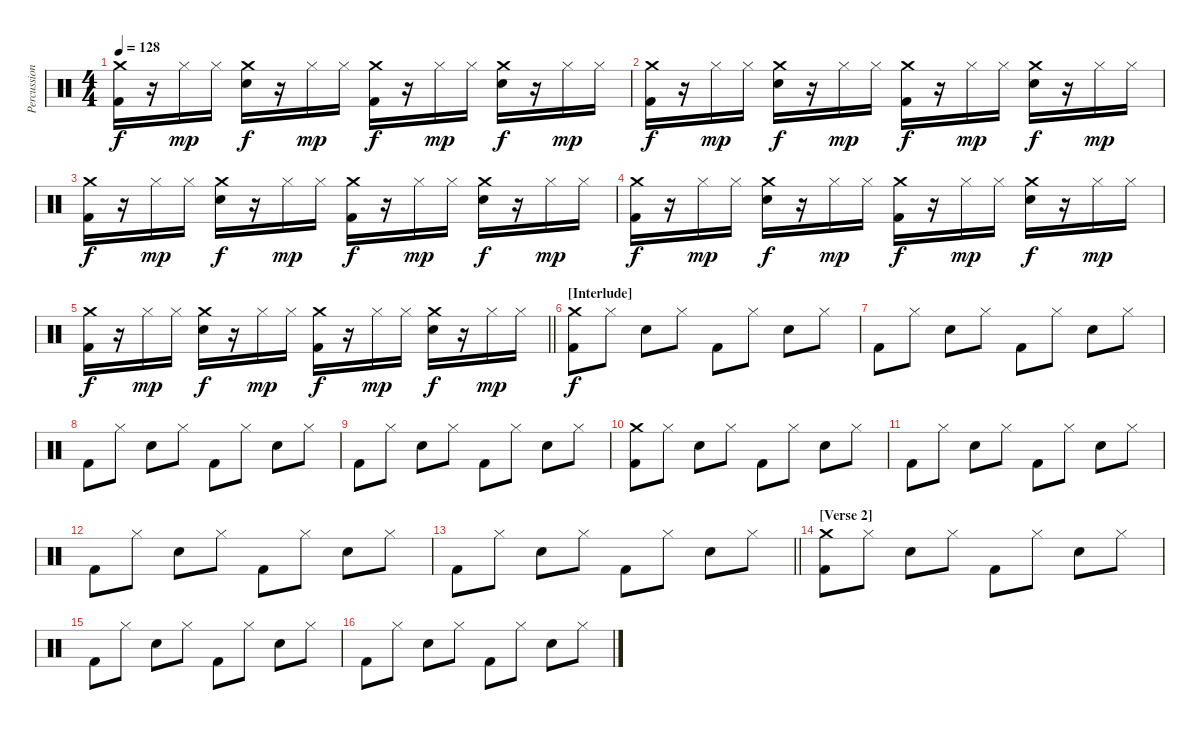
\track ("Percussion" "Percussion") {instrument percussion}
\staff {score}
\articulation defaults
\ts (4 4)
\tempo 128
\clef neutral
\ks c
("Crash medium (hit)" "Kick (hit) 2").16{dy f} r.16 "Hi-Hat (closed)".16{dy mp} "Hi-Hat (closed)".16 ("Crash medium (hit)" "Snare (hit) 2").16{dy f} r.16 "Hi-Hat (closed)".16{dy mp} "Hi-Hat (closed)".16 ("Crash medium (hit)" "Kick (hit) 2").16{dy f} r.16 "Hi-Hat (closed)".16{dy mp} "Hi-Hat (closed)".16 ("Crash medium (hit)" "Snare (hit) 2").16{dy f} r.16 "Hi-Hat (closed)".16{dy mp} "Hi-Hat (closed)".16 |
("Crash medium (hit)" "Kick (hit) 2").16{dy f} r.16 "Hi-Hat (closed)".16{dy mp} "Hi-Hat (closed)".16 ("Crash medium (hit)" "Snare (hit) 2").16{dy f} r.16 "Hi-Hat (closed)".16{dy mp} "Hi-Hat (closed)".16 ("Crash medium (hit)" "Kick (hit) 2").16{dy f} r.16 "Hi-Hat (closed)".16{dy mp} "Hi-Hat (closed)".16 ("Crash medium (hit)" "Snare (hit) 2").16{dy f} r.16 "Hi-Hat (closed)".16{dy mp} "Hi-Hat (closed)".16 |
("Crash medium (hit)" "Kick (hit) 2").16{dy f} r.16 "Hi-Hat (closed)".16{dy mp} "Hi-Hat (closed)".16 ("Crash medium (hit)" "Snare (hit) 2").16{dy f} r.16 "Hi-Hat (closed)".16{dy mp} "Hi-Hat (closed)".16 ("Crash medium (hit)" "Kick (hit) 2").16{dy f} r.16 "Hi-Hat (closed)".16{dy mp} "Hi-Hat (closed)".16 ("Crash medium (hit)" "Snare (hit) 2").16{dy f} r.16 "Hi-Hat (closed)".16{dy mp} "Hi-Hat (closed)".16 |
("Crash medium (hit)" "Kick (hit) 2").16{dy f} r.16 "Hi-Hat (closed)".16{dy mp} "Hi-Hat (closed)".16 ("Crash medium (hit)" "Snare (hit) 2").16{dy f} r.16 "Hi-Hat (closed)".16{dy mp} "Hi-Hat (closed)".16 ("Crash medium (hit)" "Kick (hit) 2").16{dy f} r.16 "Hi-Hat (closed)".16{dy mp} "Hi-Hat (closed)".16 ("Crash medium (hit)" "Snare (hit) 2").16{dy f} r.16 "Hi-Hat (closed)".16{dy mp} "Hi-Hat (closed)".16 |
\barLineRight lightlight
("Crash medium (hit)" "Kick (hit) 2").16{dy f} r.16 "Hi-Hat (closed)".16{dy mp} "Hi-Hat (closed)".16 ("Crash medium (hit)" "Snare (hit) 2").16{dy f} r.16 "Hi-Hat (closed)".16{dy mp} "Hi-Hat (closed)".16 ("Crash medium (hit)" "Kick (hit) 2").16{dy f} r.16 "Hi-Hat (closed)".16{dy mp} "Hi-Hat (closed)".16 ("Crash medium (hit)" "Snare (hit) 2").16{dy f} r.16 "Hi-Hat (closed)".16{dy mp} "Hi-Hat (closed)".16 |
\section ("" "[Interlude]")
("Crash medium (hit)" "Kick (hit) 2").8{dy f} "Hi-Hat (closed)".8 "Snare (hit) 2".8 "Hi-Hat (closed)".8 "Kick (hit) 2".8 "Hi-Hat (closed)".8 "Snare (hit) 2".8 "Hi-Hat (closed)".8 |
"Kick (hit) 2".8 "Hi-Hat (closed)".8 "Snare (hit) 2".8 "Hi-Hat (closed)".8 "Kick (hit) 2".8 "Hi-Hat (closed)".8 "Snare (hit) 2".8 "Hi-Hat (closed)".8 |
"Kick (hit) 2".8 "Hi-Hat (closed)".8 "Snare (hit) 2".8 "Hi-Hat (closed)".8 "Kick (hit) 2".8 "Hi-Hat (closed)".8 "Snare (hit) 2".8 "Hi-Hat (closed)".8 |
"Kick (hit) 2".8 "Hi-Hat (closed)".8 "Snare (hit) 2".8 "Hi-Hat (closed)".8 "Kick (hit) 2".8 "Hi-Hat (closed)".8 "Snare (hit) 2".8 "Hi-Hat (closed)".8 |
("Crash medium (hit)" "Kick (hit) 2").8 "Hi-Hat (closed)".8 "Snare (hit) 2".8 "Hi-Hat (closed)".8 "Kick (hit) 2".8 "Hi-Hat (closed)".8 "Snare (hit) 2".8 "Hi-Hat (closed)".8 |
"Kick (hit) 2".8 "Hi-Hat (closed)".8 "Snare (hit) 2".8 "Hi-Hat (closed)".8 "Kick (hit) 2".8 "Hi-Hat (closed)".8 "Snare (hit) 2".8 "Hi-Hat (closed)".8 |
"Kick (hit) 2".8 "Hi-Hat (closed)".8 "Snare (hit) 2".8 "Hi-Hat (closed)".8 "Kick (hit) 2".8 "Hi-Hat (closed)".8 "Snare (hit) 2".8 "Hi-Hat (closed)".8 |
\barLineRight lightlight "Kick (hit) 2".8 "Hi-Hat (closed)".8 "Snare (hit) 2".8 "Hi-Hat (closed)".8 "Kick (hit) 2".8 "Hi-Hat (closed)".8 "Snare (hit) 2".8 "Hi-Hat (closed)".8
|
\section ("" "[Verse 2]")
("Crash medium (hit)" "Kick (hit) 2").8 "Hi-Hat (closed)".8 "Snare (hit) 2".8 "Hi-Hat (closed)".8 "Kick (hit) 2".8 "Hi-Hat (closed)".8 "Snare (hit) 2".8 "Hi-Hat (closed)".8 |
"Kick (hit) 2".8 "Hi-Hat (closed)".8 "Snare (hit) 2".8 "Hi-Hat (closed)".8 "Kick (hit) 2".8 "Hi-Hat (closed)".8 "Snare (hit) 2".8 "Hi-Hat (closed)".8 |
"Kick (hit) 2".8 "Hi-Hat (closed)".8 "Snare (hit) 2".8 "Hi-Hat (closed)".8 "Kick (hit) 2".8 "Hi-Hat (closed)".8 "Snare (hit) 2".8 "Hi-Hat (closed)".8
